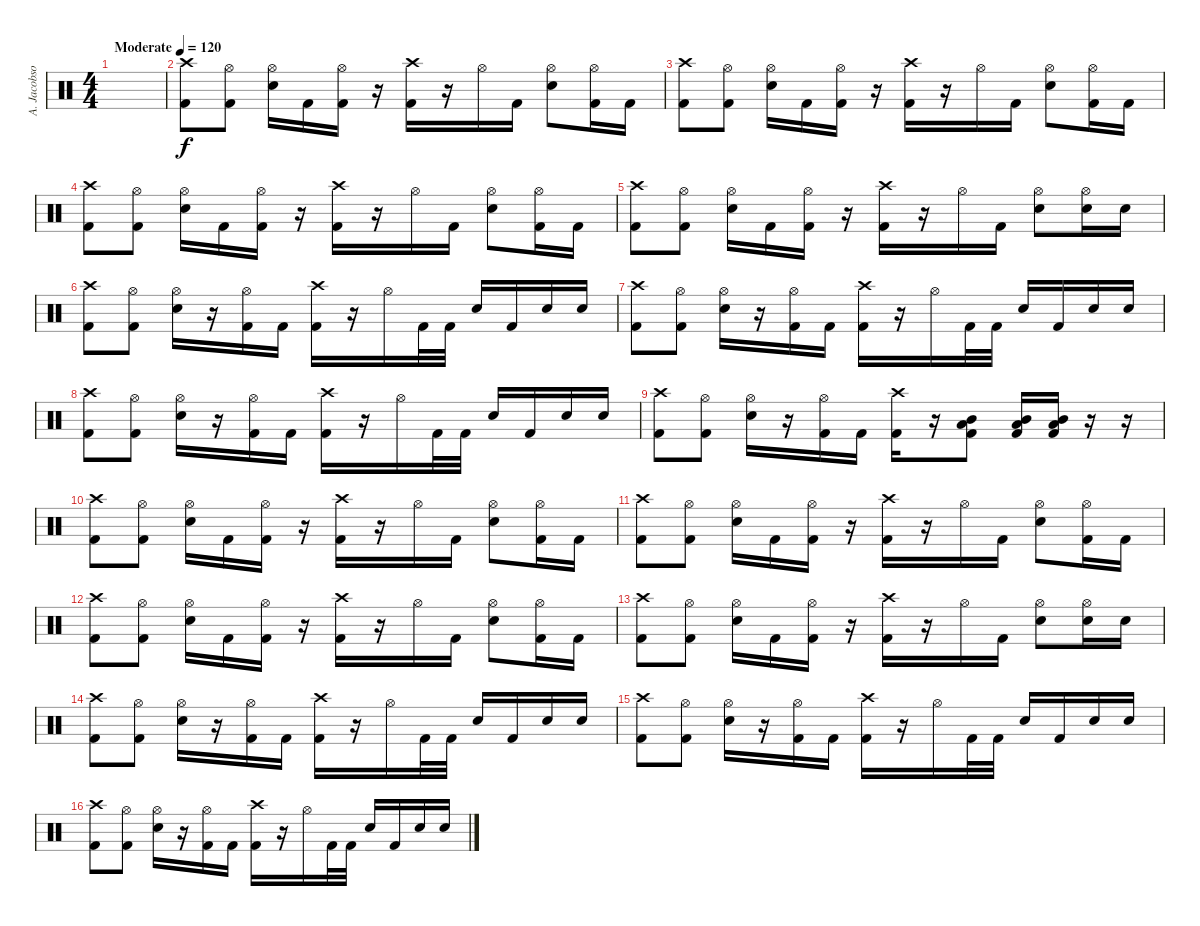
\track ("A. Jacobson" "A. Jacobso") {instrument percussion}
\staff {score}
\articulation defaults
\ts (4 4)
\tempo (120 "Moderate")
\clef neutral
\ks c
|
("Crash high (hit)" "Kick (hit) 2").8 ("Hi-Hat (open)" "Kick (hit) 2").8 ("Hi-Hat (open)" "Electric Snare (hit)").16 "Kick (hit) 2".16 ("Hi-Hat (open)" "Kick (hit) 2").16 r.16 ("Crash high (hit)" "Kick (hit) 2").16 r.16 "Hi-Hat (open)".16 "Kick (hit) 2".16 ("Hi-Hat (open)" "Electric Snare (hit)").8 ("Hi-Hat (open)" "Kick (hit) 2").16 "Kick (hit) 2".16 |
("Crash high (hit)" "Kick (hit) 2").8 ("Hi-Hat (open)" "Kick (hit) 2").8 ("Hi-Hat (open)" "Electric Snare (hit)").16 "Kick (hit) 2".16 ("Hi-Hat (open)" "Kick (hit) 2").16 r.16 ("Crash high (hit)" "Kick (hit) 2").16 r.16 "Hi-Hat (open)".16 "Kick (hit) 2".16 ("Hi-Hat (open)" "Electric Snare (hit)").8 ("Hi-Hat (open)" "Kick (hit) 2").16 "Kick (hit) 2".16 |
("Crash high (hit)" "Kick (hit) 2").8 ("Hi-Hat (open)" "Kick (hit) 2").8 ("Hi-Hat (open)" "Electric Snare (hit)").16 "Kick (hit) 2".16 ("Hi-Hat (open)" "Kick (hit) 2").16 r.16 ("Crash high (hit)" "Kick (hit) 2").16 r.16 "Hi-Hat (open)".16 "Kick (hit) 2".16 ("Hi-Hat (open)" "Electric Snare (hit)").8 ("Hi-Hat (open)" "Kick (hit) 2").16 "Kick (hit) 2".16 |
("Crash high (hit)" "Kick (hit) 2").8 ("Hi-Hat (open)" "Kick (hit) 2").8 ("Hi-Hat (open)" "Electric Snare (hit)").16 "Kick (hit) 2".16 ("Hi-Hat (open)" "Kick (hit) 2").16 r.16 ("Crash high (hit)" "Kick (hit) 2").16 r.16 "Hi-Hat (open)".16 "Kick (hit) 2".16 ("Hi-Hat (open)" "Electric Snare (hit)").8 ("Hi-Hat (open)" "Electric Snare (hit)").16 "Electric Snare (hit)".16 |
("Crash high (hit)" "Kick (hit) 2").8 ("Hi-Hat (open)" "Kick (hit) 2").8 ("Hi-Hat (open)" "Electric Snare (hit)").16 r.16 ("Hi-Hat (open)" "Kick (hit) 2").16 "Kick (hit) 2".16 ("Crash high (hit)" "Kick (hit) 2").16 r.16 "Hi-Hat (open)".16 "Kick (hit) 2".32 "Kick (hit) 2".32 "Electric Snare (hit)".16 "Kick (hit) 2".16 "Electric Snare (hit)".16 "Electric Snare (hit)".16 |
("Crash high (hit)" "Kick (hit) 2").8 ("Hi-Hat (open)" "Kick (hit) 2").8 ("Hi-Hat (open)" "Electric Snare (hit)").16 r.16 ("Hi-Hat (open)" "Kick (hit) 2").16 "Kick (hit) 2".16 ("Crash high (hit)" "Kick (hit) 2").16 r.16 "Hi-Hat (open)".16 "Kick (hit) 2".32 "Kick (hit) 2".32 "Electric Snare (hit)".16 "Kick (hit) 2".16 "Electric Snare (hit)".16 "Electric Snare (hit)".16 |
("Crash high (hit)" "Kick (hit) 2").8 ("Hi-Hat (open)" "Kick (hit) 2").8 ("Hi-Hat (open)" "Electric Snare (hit)").16 r.16 ("Hi-Hat (open)" "Kick (hit) 2").16 "Kick (hit) 2".16 ("Crash high (hit)" "Kick (hit) 2").16 r.16 "Hi-Hat (open)".16 "Kick (hit) 2".32 "Kick (hit) 2".32 "Electric Snare (hit)".16 "Kick (hit) 2".16 "Electric Snare (hit)".16 "Electric Snare (hit)".16 |
("Crash high (hit)" "Kick (hit) 2").8 ("Hi-Hat (open)" "Kick (hit) 2").8 ("Hi-Hat (open)" "Electric Snare (hit)").16 r.16 ("Hi-Hat (open)" "Kick (hit) 2").16 "Kick (hit) 2".16 ("Crash high (hit)" "Kick (hit) 2").16 r.16 ("Mid Tom (hit)" "Low Tom (hit)" "Kick (hit) 2").8 ("Mid Tom (hit)" "Low Tom (hit)" "Kick (hit) 2").16 ("Mid Tom (hit)" "Low Tom (hit)" "Kick (hit) 2").16 r.16 r.16 |
("Crash high (hit)" "Kick (hit) 2").8 ("Hi-Hat (open)" "Kick (hit) 2").8 ("Hi-Hat (open)" "Electric Snare (hit)").16 "Kick (hit) 2".16 ("Hi-Hat (open)" "Kick (hit) 2").16 r.16 ("Crash high (hit)" "Kick (hit) 2").16 r.16 "Hi-Hat (open)".16 "Kick (hit) 2".16 ("Hi-Hat (open)" "Electric Snare (hit)").8 ("Hi-Hat (open)" "Kick (hit) 2").16 "Kick (hit) 2".16 |
("Crash high (hit)" "Kick (hit) 2").8 ("Hi-Hat (open)" "Kick (hit) 2").8 ("Hi-Hat (open)" "Electric Snare (hit)").16 "Kick (hit) 2".16 ("Hi-Hat (open)" "Kick (hit) 2").16 r.16 ("Crash high (hit)" "Kick (hit) 2").16 r.16 "Hi-Hat (open)".16 "Kick (hit) 2".16 ("Hi-Hat (open)" "Electric Snare (hit)").8 ("Hi-Hat (open)" "Kick (hit) 2").16 "Kick (hit) 2".16 |
("Crash high (hit)" "Kick (hit) 2").8 ("Hi-Hat (open)" "Kick (hit) 2").8 ("Hi-Hat (open)" "Electric Snare (hit)").16 "Kick (hit) 2".16 ("Hi-Hat (open)" "Kick (hit) 2").16 r.16 ("Crash high (hit)" "Kick (hit) 2").16 r.16 "Hi-Hat (open)".16 "Kick (hit) 2".16 ("Hi-Hat (open)" "Electric Snare (hit)").8 ("Hi-Hat (open)" "Kick (hit) 2").16 "Kick (hit) 2".16 |
("Crash high (hit)" "Kick (hit) 2").8 ("Hi-Hat (open)" "Kick (hit) 2").8 ("Hi-Hat (open)" "Electric Snare (hit)").16 "Kick (hit) 2".16 ("Hi-Hat (open)" "Kick (hit) 2").16 r.16 ("Crash high (hit)" "Kick (hit) 2").16 r.16 "Hi-Hat (open)".16 "Kick (hit) 2".16 ("Hi-Hat (open)" "Electric Snare (hit)").8 ("Hi-Hat (open)" "Electric Snare (hit)").16 "Electric Snare (hit)".16 |
("Crash high (hit)" "Kick (hit) 2").8 ("Hi-Hat (open)" "Kick (hit) 2").8 ("Hi-Hat (open)" "Electric Snare (hit)").16 r.16 ("Hi-Hat (open)" "Kick (hit) 2").16 "Kick (hit) 2".16 ("Crash high (hit)" "Kick (hit) 2").16 r.16 "Hi-Hat (open)".16 "Kick (hit) 2".32 "Kick (hit) 2".32 "Electric Snare (hit)".16 "Kick (hit) 2".16 "Electric Snare (hit)".16 "Electric Snare (hit)".16 |
("Crash high (hit)" "Kick (hit) 2").8 ("Hi-Hat (open)" "Kick (hit) 2").8 ("Hi-Hat (open)" "Electric Snare (hit)").16 r.16 ("Hi-Hat (open)" "Kick (hit) 2").16 "Kick (hit) 2".16 ("Crash high (hit)" "Kick (hit) 2").16 r.16 "Hi-Hat (open)".16 "Kick (hit) 2".32 "Kick (hit) 2".32 "Electric Snare (hit)".16 "Kick (hit) 2".16 "Electric Snare (hit)".16 "Electric Snare (hit)".16 |
("Crash high (hit)" "Kick (hit) 2").8 ("Hi-Hat (open)" "Kick (hit) 2").8 ("Hi-Hat (open)" "Electric Snare (hit)").16 r.16 ("Hi-Hat (open)" "Kick (hit) 2").16 "Kick (hit) 2".16 ("Crash high (hit)" "Kick (hit) 2").16 r.16 "Hi-Hat (open)".16 "Kick (hit) 2".32 "Kick (hit) 2".32 "Electric Snare (hit)".16 "Kick (hit) 2".16 "Electric Snare (hit)".16 "Electric Snare (hit)".16
